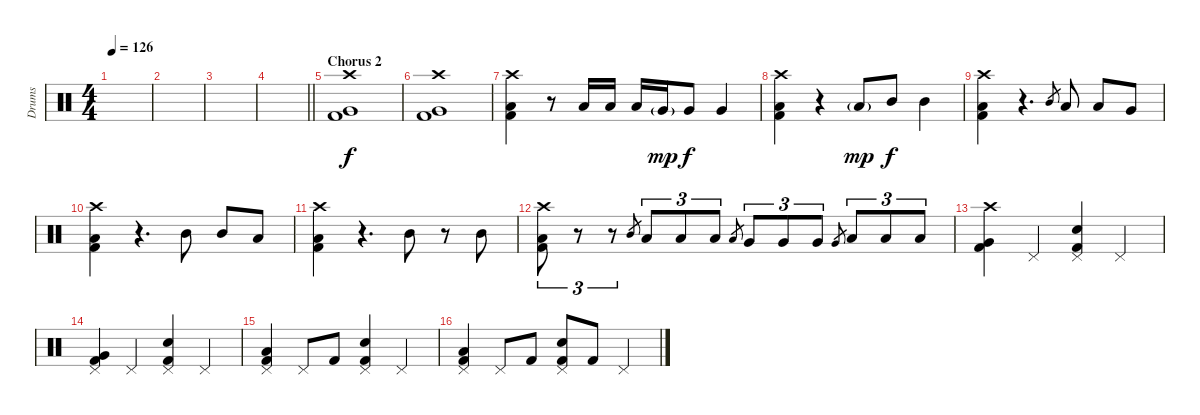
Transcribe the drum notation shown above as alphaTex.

\track ("Drums" "Drums") {instrument percussion}
\staff {score}
\articulation defaults
\ts (4 4)
\tempo 126
\clef neutral
\ks c
|
|
|
\barLineRight lightlight
|
\section ("" "Chorus 2")
("Crash high (hit)" "Kick (hit) 2" "Very Low Tom (hit)").1 |
("Crash high (hit)" "Kick (hit) 2" "Very Low Tom (hit)").1 |
("Crash high (hit)" "Kick (hit) 2" "Low Floor Tom (hit)").4 r.8 "Low Tom (hit)".16 "Low Tom (hit)".16 "Low Tom (hit)".16 "Very Low Tom (hit)"{g}.16{dy mp} "Very Low Tom (hit)".8{dy f} "Very Low Tom (hit)".4 |
("Crash high (hit)" "Kick (hit) 2" "Low Floor Tom (hit)").4 r.4 "Low Tom (hit)"{g}.8{dy mp} "Mid Tom (hit)".8{dy f} "Mid Tom (hit)".4 |
("Crash high (hit)" "Kick (hit) 2" "Low Tom (hit)").4 r.4{d} "Mid Tom (hit)".8{gr} "Low Tom (hit)".8 "Low Tom (hit)".8 "Very Low Tom (hit)".8 |
("Crash high (hit)" "Kick (hit) 2" "Low Floor Tom (hit)").4 r.4{d} "Mid Tom (hit)".8 "Mid Tom (hit)".8 "Low Tom (hit)".8 |
("Crash high (hit)" "Kick (hit) 2" "Low Floor Tom (hit)").4 r.4{d} "Mid Tom (hit)".8 r.8 "Mid Tom (hit)".8 |
("Crash high (hit)" "Kick (hit) 2" "Low Floor Tom (hit)").8{tu (3 2)} r.8{tu (3 2)} r.8{tu (3 2)} "Mid Tom (hit)".8{gr} "Low Tom (hit)".8{tu (3 2)} "Low Tom (hit)".8{tu (3 2)} "Low Tom (hit)".8{tu (3 2)} "Low Tom (hit)".8{gr} "Very Low Tom (hit)".8{tu (3 2)} "Very Low Tom (hit)".8{tu (3 2)} "Very Low Tom (hit)".8{tu (3 2)} "Very Low Tom (hit)".8{gr} "Low Floor Tom (hit)".8{tu (3 2)} "Low Floor Tom (hit)".8{tu (3 2)} "Low Floor Tom (hit)".8{tu (3 2)} |
("Crash high (hit)" "Kick (hit) 2" "Very Low Tom (hit)").4 "Pedal Hi-Hat (hit)".4 ("Pedal Hi-Hat (hit)" "Kick (hit) 2" "Electric Snare (hit)").4 "Pedal Hi-Hat (hit)".4 |
("Pedal Hi-Hat (hit)" "Kick (hit) 2" "Very Low Tom (hit)").4 "Pedal Hi-Hat (hit)".4 ("Pedal Hi-Hat (hit)" "Kick (hit) 2" "Electric Snare (hit)").4 "Pedal Hi-Hat (hit)".4 |
("Pedal Hi-Hat (hit)" "Kick (hit) 2" "Low Floor Tom (hit)").4 "Pedal Hi-Hat (hit)".8 "Kick (hit) 2".8 ("Pedal Hi-Hat (hit)" "Kick (hit) 2" "Electric Snare (hit)").4 "Pedal Hi-Hat (hit)".4 |
("Pedal Hi-Hat (hit)" "Kick (hit) 2" "Low Floor Tom (hit)").4 "Pedal Hi-Hat (hit)".8 "Kick (hit) 2".8 ("Pedal Hi-Hat (hit)" "Kick (hit) 2" "Electric Snare (hit)").8 "Kick (hit) 2".8 "Pedal Hi-Hat (hit)".4
